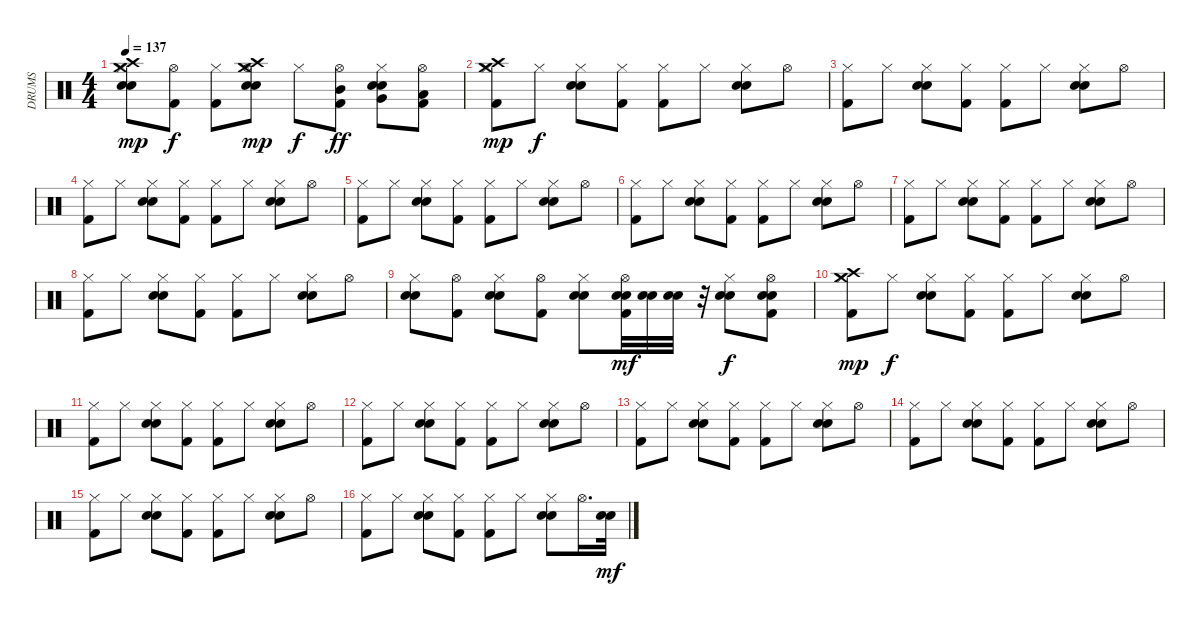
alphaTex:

\track ("DRUMS" "DRUMS") {instrument percussion}
\staff {score}
\articulation defaults
\ts (4 4)
\tempo 137
\clef neutral
\ks c
("Snare (hit) 2" "Electric Snare (hit)" "Crash high (hit)" "Crash medium (hit)" "Hi-Hat (closed)").8{dy mp} ("Hi-Hat (open)" "Kick (hit) 2").8{dy f} ("Hi-Hat (closed)" "Kick (hit) 2").8 ("Crash high (hit)" "Crash medium (hit)" "Hi-Hat (open)" "Snare (hit) 2" "Electric Snare (hit)").8{dy mp} "Hi-Hat (closed)".8{dy f} ("Mid Tom (hit)" "Hi-Hat (open)" "Kick (hit) 2").8{dy ff} ("Very Low Tom (hit)" "Snare (hit) 2" "Electric Snare (hit)" "Hi-Hat (closed)").8 ("Low Floor Tom (hit)" "Hi-Hat (open)" "Kick (hit) 2").8 |
("Hi-Hat (closed)" "Crash high (hit)" "Crash medium (hit)" "Kick (hit) 2").8{dy mp} "Hi-Hat (closed)".8{dy f} ("Hi-Hat (closed)" "Electric Snare (hit)" "Snare (hit) 2").8 ("Hi-Hat (closed)" "Kick (hit) 2").8 ("Hi-Hat (closed)" "Kick (hit) 2").8 "Hi-Hat (closed)".8 ("Hi-Hat (closed)" "Electric Snare (hit)" "Snare (hit) 2").8 "Hi-Hat (open)".8 |
("Hi-Hat (closed)" "Kick (hit) 2").8 "Hi-Hat (closed)".8 ("Hi-Hat (closed)" "Electric Snare (hit)" "Snare (hit) 2").8 ("Hi-Hat (closed)" "Kick (hit) 2").8 ("Hi-Hat (closed)" "Kick (hit) 2").8 "Hi-Hat (closed)".8 ("Hi-Hat (closed)" "Electric Snare (hit)" "Snare (hit) 2").8 "Hi-Hat (open)".8 |
("Hi-Hat (closed)" "Kick (hit) 2").8 "Hi-Hat (closed)".8 ("Hi-Hat (closed)" "Electric Snare (hit)" "Snare (hit) 2").8 ("Hi-Hat (closed)" "Kick (hit) 2").8 ("Hi-Hat (closed)" "Kick (hit) 2").8 "Hi-Hat (closed)".8 ("Hi-Hat (closed)" "Electric Snare (hit)" "Snare (hit) 2").8 "Hi-Hat (open)".8 |
("Hi-Hat (closed)" "Kick (hit) 2").8 "Hi-Hat (closed)".8 ("Hi-Hat (closed)" "Electric Snare (hit)" "Snare (hit) 2").8 ("Hi-Hat (closed)" "Kick (hit) 2").8 ("Hi-Hat (closed)" "Kick (hit) 2").8 "Hi-Hat (closed)".8 ("Hi-Hat (closed)" "Electric Snare (hit)" "Snare (hit) 2").8 "Hi-Hat (open)".8 |
("Hi-Hat (closed)" "Kick (hit) 2").8 "Hi-Hat (closed)".8 ("Hi-Hat (closed)" "Electric Snare (hit)" "Snare (hit) 2").8 ("Hi-Hat (closed)" "Kick (hit) 2").8 ("Hi-Hat (closed)" "Kick (hit) 2").8 "Hi-Hat (closed)".8 ("Hi-Hat (closed)" "Electric Snare (hit)" "Snare (hit) 2").8 "Hi-Hat (open)".8 |
("Hi-Hat (closed)" "Kick (hit) 2").8 "Hi-Hat (closed)".8 ("Hi-Hat (closed)" "Electric Snare (hit)" "Snare (hit) 2").8 ("Hi-Hat (closed)" "Kick (hit) 2").8 ("Hi-Hat (closed)" "Kick (hit) 2").8 "Hi-Hat (closed)".8 ("Hi-Hat (closed)" "Electric Snare (hit)" "Snare (hit) 2").8 "Hi-Hat (open)".8 |
("Hi-Hat (closed)" "Kick (hit) 2").8 "Hi-Hat (closed)".8 ("Hi-Hat (closed)" "Electric Snare (hit)" "Snare (hit) 2").8 ("Hi-Hat (closed)" "Kick (hit) 2").8 ("Hi-Hat (closed)" "Kick (hit) 2").8 "Hi-Hat (closed)".8 ("Hi-Hat (closed)" "Electric Snare (hit)" "Snare (hit) 2").8 "Hi-Hat (open)".8 |
("Snare (hit) 2" "Electric Snare (hit)" "Hi-Hat (closed)").8 ("Hi-Hat (open)" "Kick (hit) 2").8 ("Snare (hit) 2" "Electric Snare (hit)" "Hi-Hat (closed)").8 ("Hi-Hat (open)" "Kick (hit) 2").8 ("Snare (hit) 2" "Electric Snare (hit)" "Hi-Hat (closed)").8 ("Hi-Hat (open)" "Electric Snare (hit)" "Snare (hit) 2" "Kick (hit) 2").32{dy mf} ("Electric Snare (hit)" "Snare (hit) 2").32 ("Snare (hit) 2" "Electric Snare (hit)").32 r.32 ("Snare (hit) 2" "Electric Snare (hit)" "Hi-Hat (closed)").8{dy f} ("Snare (hit) 2" "Electric Snare (hit)" "Hi-Hat (open)" "Kick (hit) 2").8 |
("Crash high (hit)" "Crash medium (hit)" "Hi-Hat (closed)" "Kick (hit) 2").8{dy mp} "Hi-Hat (closed)".8{dy f} ("Hi-Hat (closed)" "Electric Snare (hit)" "Snare (hit) 2").8 ("Hi-Hat (closed)" "Kick (hit) 2").8 ("Hi-Hat (closed)" "Kick (hit) 2").8 "Hi-Hat (closed)".8 ("Hi-Hat (closed)" "Electric Snare (hit)" "Snare (hit) 2").8 "Hi-Hat (open)".8 |
("Hi-Hat (closed)" "Kick (hit) 2").8 "Hi-Hat (closed)".8 ("Hi-Hat (closed)" "Electric Snare (hit)" "Snare (hit) 2").8 ("Hi-Hat (closed)" "Kick (hit) 2").8 ("Hi-Hat (closed)" "Kick (hit) 2").8 "Hi-Hat (closed)".8 ("Hi-Hat (closed)" "Electric Snare (hit)" "Snare (hit) 2").8 "Hi-Hat (open)".8 |
("Hi-Hat (closed)" "Kick (hit) 2").8 "Hi-Hat (closed)".8 ("Hi-Hat (closed)" "Electric Snare (hit)" "Snare (hit) 2").8 ("Hi-Hat (closed)" "Kick (hit) 2").8 ("Hi-Hat (closed)" "Kick (hit) 2").8 "Hi-Hat (closed)".8 ("Hi-Hat (closed)" "Electric Snare (hit)" "Snare (hit) 2").8 "Hi-Hat (open)".8 |
("Hi-Hat (closed)" "Kick (hit) 2").8 "Hi-Hat (closed)".8 ("Hi-Hat (closed)" "Electric Snare (hit)" "Snare (hit) 2").8 ("Hi-Hat (closed)" "Kick (hit) 2").8 ("Hi-Hat (closed)" "Kick (hit) 2").8 "Hi-Hat (closed)".8 ("Hi-Hat (closed)" "Electric Snare (hit)" "Snare (hit) 2").8 "Hi-Hat (open)".8 |
("Hi-Hat (closed)" "Kick (hit) 2").8 "Hi-Hat (closed)".8 ("Hi-Hat (closed)" "Electric Snare (hit)" "Snare (hit) 2").8 ("Hi-Hat (closed)" "Kick (hit) 2").8 ("Hi-Hat (closed)" "Kick (hit) 2").8 "Hi-Hat (closed)".8 ("Hi-Hat (closed)" "Electric Snare (hit)" "Snare (hit) 2").8 "Hi-Hat (open)".8 |
("Hi-Hat (closed)" "Kick (hit) 2").8 "Hi-Hat (closed)".8 ("Hi-Hat (closed)" "Electric Snare (hit)" "Snare (hit) 2").8 ("Hi-Hat (closed)" "Kick (hit) 2").8 ("Hi-Hat (closed)" "Kick (hit) 2").8 "Hi-Hat (closed)".8 ("Hi-Hat (closed)" "Electric Snare (hit)" "Snare (hit) 2").8 "Hi-Hat (open)".8 |
("Hi-Hat (closed)" "Kick (hit) 2").8 "Hi-Hat (closed)".8 ("Hi-Hat (closed)" "Electric Snare (hit)" "Snare (hit) 2").8 ("Hi-Hat (closed)" "Kick (hit) 2").8 ("Hi-Hat (closed)" "Kick (hit) 2").8 "Hi-Hat (closed)".8 ("Hi-Hat (closed)" "Electric Snare (hit)" "Snare (hit) 2").8 "Hi-Hat (open)".16{d} ("Snare (hit) 2" "Electric Snare (hit)").32{dy mf}
